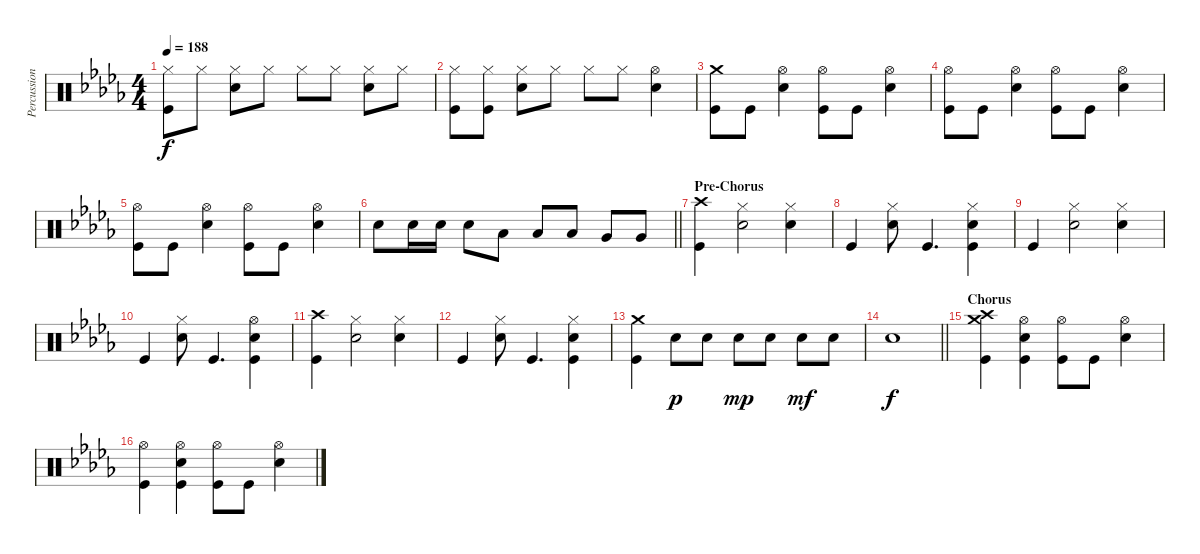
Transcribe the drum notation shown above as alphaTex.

\track ("Percussion" "Percussion") {instrument percussion}
\staff {score}
\articulation defaults
\ts (4 4)
\tempo 188
\clef neutral
\ks db
("Hi-Hat (closed)" "Kick (hit)").8{dy f} "Hi-Hat (closed)".8 ("Hi-Hat (closed)" "Electric Snare (hit)").8 "Hi-Hat (closed)".8 "Hi-Hat (closed)".8 "Hi-Hat (closed)".8 ("Hi-Hat (closed)" "Electric Snare (hit)").8 "Hi-Hat (closed)".8 |
("Hi-Hat (closed)" "Kick (hit)").8 ("Hi-Hat (closed)" "Kick (hit)").8 ("Hi-Hat (closed)" "Electric Snare (hit)").8 "Hi-Hat (closed)".8 "Hi-Hat (closed)".8 "Hi-Hat (closed)".8 ("Hi-Hat (open)" "Electric Snare (hit)").4 |
("Crash medium (hit)" "Kick (hit)").8 "Kick (hit)".8 ("Hi-Hat (open)" "Electric Snare (hit)").4 ("Hi-Hat (open)" "Kick (hit)").8 "Kick (hit)".8 ("Hi-Hat (open)" "Electric Snare (hit)").4 |
("Hi-Hat (open)" "Kick (hit)").8 "Kick (hit)".8 ("Hi-Hat (open)" "Electric Snare (hit)").4 ("Hi-Hat (open)" "Kick (hit)").8 "Kick (hit)".8 ("Hi-Hat (open)" "Electric Snare (hit)").4 |
("Hi-Hat (open)" "Kick (hit)").8 "Kick (hit)".8 ("Hi-Hat (open)" "Electric Snare (hit)").4 ("Hi-Hat (open)" "Kick (hit)").8 "Kick (hit)".8 ("Hi-Hat (open)" "Electric Snare (hit)").4 |
\barLineRight lightlight "Electric Snare (hit)".8 "Electric Snare (hit)".16 "Electric Snare (hit)".16 "Electric Snare (hit)".8 "Low Tom (hit)".8 "Low Tom (hit)".8 "Low Tom (hit)".8 "Very Low Tom (hit)".8 "Very Low Tom (hit)".8
|
\section ("" "Pre-Chorus")
("Crash high (hit)" "Kick (hit)").4 ("Hi-Hat (closed)" "Electric Snare (hit)").2 ("Hi-Hat (closed)" "Electric Snare (hit)").4 |
"Kick (hit)".4 ("Hi-Hat (closed)" "Electric Snare (hit)").8 "Kick (hit)".4{d} ("Hi-Hat (closed)" "Electric Snare (hit)" "Kick (hit)").4 |
"Kick (hit)".4 ("Hi-Hat (closed)" "Electric Snare (hit)").2 ("Hi-Hat (closed)" "Electric Snare (hit)").4 |
"Kick (hit)".4 ("Hi-Hat (closed)" "Electric Snare (hit)").8 "Kick (hit)".4{d} ("Hi-Hat (open)" "Electric Snare (hit)" "Kick (hit)").4 |
("Crash high (hit)" "Kick (hit)").4 ("Hi-Hat (closed)" "Electric Snare (hit)").2 ("Hi-Hat (closed)" "Electric Snare (hit)").4 |
"Kick (hit)".4 ("Hi-Hat (closed)" "Electric Snare (hit)").8 "Kick (hit)".4{d} ("Hi-Hat (closed)" "Electric Snare (hit)" "Kick (hit)").4 |
("Crash medium (hit)" "Kick (hit)").4 "Electric Snare (hit)".8{dy p} "Electric Snare (hit)".8 "Electric Snare (hit)".8{dy mp} "Electric Snare (hit)".8 "Electric Snare (hit)".8{dy mf} "Electric Snare (hit)".8 |
\barLineRight lightlight "Electric Snare (hit)".1{dy f}
|
\section ("" "Chorus")
("Crash high (hit)" "Crash medium (hit)" "Kick (hit)").4 ("Hi-Hat (open)" "Electric Snare (hit)" "Kick (hit)").4 ("Hi-Hat (open)" "Kick (hit)").8 "Kick (hit)".8 ("Hi-Hat (open)" "Electric Snare (hit)").4 |
("Hi-Hat (open)" "Kick (hit)").4 ("Hi-Hat (open)" "Electric Snare (hit)" "Kick (hit)").4 ("Hi-Hat (open)" "Kick (hit)").8 "Kick (hit)".8 ("Hi-Hat (open)" "Electric Snare (hit)").4
